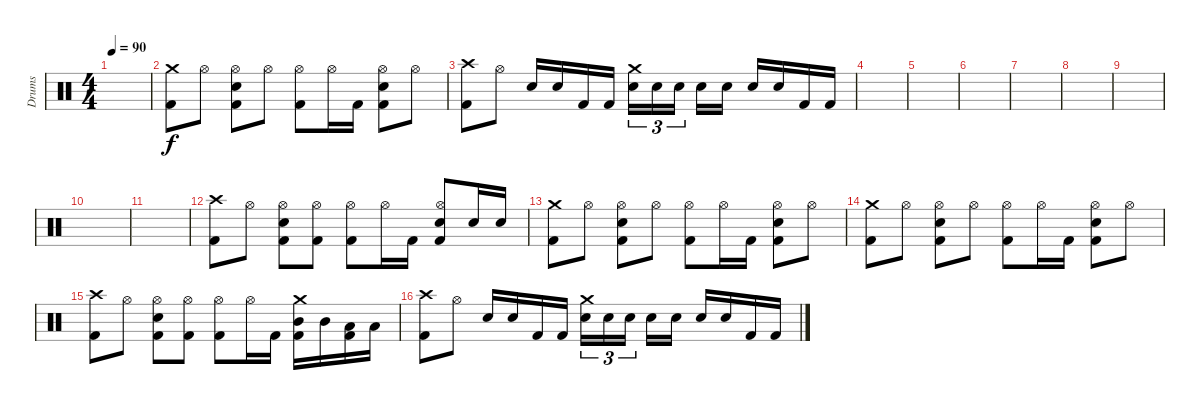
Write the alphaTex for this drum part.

\track ("Drums" "Drums") {instrument percussion}
\staff {score}
\articulation defaults
\ts (4 4)
\tempo 90
\clef neutral
\ks c
|
("Crash medium (hit)" "Kick (hit) 2").8 "Hi-Hat (open)".8 ("Hi-Hat (open)" "Electric Snare (hit)" "Kick (hit) 2").8 "Hi-Hat (open)".8 ("Hi-Hat (open)" "Kick (hit) 2").8 "Hi-Hat (open)".16 "Kick (hit) 2".16 ("Hi-Hat (open)" "Electric Snare (hit)" "Kick (hit) 2").8 "Hi-Hat (open)".8 |
("Crash high (hit)" "Kick (hit) 2").8 "Hi-Hat (open)".8 "Electric Snare (hit)".16 "Electric Snare (hit)".16 "Kick (hit) 2".16 "Kick (hit) 2".16 ("Crash medium (hit)" "Electric Snare (hit)").16{tu (3 2)} "Electric Snare (hit)".16{tu (3 2)} "Electric Snare (hit)".16{tu (3 2) beam splitsecondary} "Electric Snare (hit)".16 "Electric Snare (hit)".16 "Electric Snare (hit)".16 "Electric Snare (hit)".16 "Kick (hit) 2".16 "Kick (hit) 2".16 |
|
|
|
|
|
|
|
|
("Crash high (hit)" "Kick (hit) 2").8 "Hi-Hat (open)".8 ("Hi-Hat (open)" "Electric Snare (hit)" "Kick (hit) 2").8 ("Hi-Hat (open)" "Kick (hit) 2").8 ("Hi-Hat (open)" "Kick (hit) 2").8 "Hi-Hat (open)".16 "Kick (hit) 2".16 ("Hi-Hat (open)" "Electric Snare (hit)" "Kick (hit) 2").8 "Electric Snare (hit)".16 "Electric Snare (hit)".16 |
("Crash medium (hit)" "Kick (hit) 2").8 "Hi-Hat (open)".8 ("Hi-Hat (open)" "Electric Snare (hit)" "Kick (hit) 2").8 "Hi-Hat (open)".8 ("Hi-Hat (open)" "Kick (hit) 2").8 "Hi-Hat (open)".16 "Kick (hit) 2".16 ("Hi-Hat (open)" "Electric Snare (hit)" "Kick (hit) 2").8 "Hi-Hat (open)".8 |
("Crash medium (hit)" "Kick (hit) 2").8 "Hi-Hat (open)".8 ("Hi-Hat (open)" "Electric Snare (hit)" "Kick (hit) 2").8 "Hi-Hat (open)".8 ("Hi-Hat (open)" "Kick (hit) 2").8 "Hi-Hat (open)".16 "Kick (hit) 2".16 ("Hi-Hat (open)" "Electric Snare (hit)" "Kick (hit) 2").8 "Hi-Hat (open)".8 |
("Crash high (hit)" "Kick (hit) 2").8 "Hi-Hat (open)".8 ("Hi-Hat (open)" "Electric Snare (hit)" "Kick (hit) 2").8 ("Hi-Hat (open)" "Kick (hit) 2").8 ("Hi-Hat (open)" "Kick (hit) 2").8 "Hi-Hat (open)".16 "Kick (hit) 2".16 ("Crash medium (hit)" "Mid Tom (hit)" "Kick (hit) 2").16 "Mid Tom (hit)".16 ("Low Tom (hit)" "Kick (hit) 2").16 "Low Tom (hit)".16 |
("Crash high (hit)" "Kick (hit) 2").8 "Hi-Hat (open)".8 "Electric Snare (hit)".16 "Electric Snare (hit)".16 "Kick (hit) 2".16 "Kick (hit) 2".16 ("Crash medium (hit)" "Electric Snare (hit)").16{tu (3 2)} "Electric Snare (hit)".16{tu (3 2)} "Electric Snare (hit)".16{tu (3 2) beam splitsecondary} "Electric Snare (hit)".16 "Electric Snare (hit)".16 "Electric Snare (hit)".16 "Electric Snare (hit)".16 "Kick (hit) 2".16 "Kick (hit) 2".16
